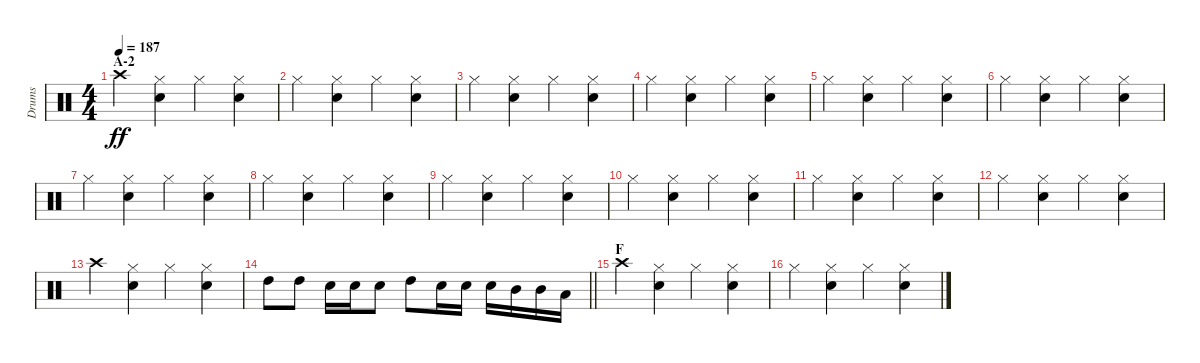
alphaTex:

\track ("Drums" "Drums") {instrument percussion}
\staff {score}
\articulation defaults
\ts (4 4)
\section ("" "A-2")
\tempo 187
\clef neutral
\ks c "Crash high (hit)".4{dy ff}
("Hi-Hat (closed)" "Snare (hit) 2").4 "Hi-Hat (closed)".4 ("Hi-Hat (closed)" "Snare (hit) 2").4 |
"Hi-Hat (closed)".4 ("Hi-Hat (closed)" "Snare (hit) 2").4 "Hi-Hat (closed)".4 ("Hi-Hat (closed)" "Snare (hit) 2").4 |
"Hi-Hat (closed)".4 ("Hi-Hat (closed)" "Snare (hit) 2").4 "Hi-Hat (closed)".4 ("Hi-Hat (closed)" "Snare (hit) 2").4 |
"Hi-Hat (closed)".4 ("Hi-Hat (closed)" "Snare (hit) 2").4 "Hi-Hat (closed)".4 ("Hi-Hat (closed)" "Snare (hit) 2").4 |
"Hi-Hat (closed)".4 ("Hi-Hat (closed)" "Snare (hit) 2").4 "Hi-Hat (closed)".4 ("Hi-Hat (closed)" "Snare (hit) 2").4 |
"Hi-Hat (closed)".4 ("Hi-Hat (closed)" "Snare (hit) 2").4 "Hi-Hat (closed)".4 ("Hi-Hat (closed)" "Snare (hit) 2").4 |
"Hi-Hat (closed)".4 ("Hi-Hat (closed)" "Snare (hit) 2").4 "Hi-Hat (closed)".4 ("Hi-Hat (closed)" "Snare (hit) 2").4 |
"Hi-Hat (closed)".4 ("Hi-Hat (closed)" "Snare (hit) 2").4 "Hi-Hat (closed)".4 ("Hi-Hat (closed)" "Snare (hit) 2").4 |
"Hi-Hat (closed)".4 ("Hi-Hat (closed)" "Snare (hit) 2").4 "Hi-Hat (closed)".4 ("Hi-Hat (closed)" "Snare (hit) 2").4 |
"Hi-Hat (closed)".4 ("Hi-Hat (closed)" "Snare (hit) 2").4 "Hi-Hat (closed)".4 ("Hi-Hat (closed)" "Snare (hit) 2").4 |
"Hi-Hat (closed)".4 ("Hi-Hat (closed)" "Snare (hit) 2").4 "Hi-Hat (closed)".4 ("Hi-Hat (closed)" "Snare (hit) 2").4 |
"Hi-Hat (closed)".4 ("Hi-Hat (closed)" "Snare (hit) 2").4 "Hi-Hat (closed)".4 ("Hi-Hat (closed)" "Snare (hit) 2").4 |
"Crash high (hit)".4 ("Hi-Hat (closed)" "Snare (hit) 2").4 "Hi-Hat (closed)".4 ("Hi-Hat (closed)" "Snare (hit) 2").4 |
\barLineRight lightlight "High Tom (hit)".8 "High Tom (hit)".8 "Snare (hit) 2".16 "Snare (hit) 2".16 "Snare (hit) 2".8 "High Tom (hit)".8 "Snare (hit) 2".16 "Snare (hit) 2".16 "Snare (hit) 2".16 "Mid Tom (hit)".16 "Mid Tom (hit)".16 "Low Tom (hit)".16
|
\section ("" "F")
"Crash high (hit)".4 ("Hi-Hat (closed)" "Snare (hit) 2").4 "Hi-Hat (closed)".4 ("Hi-Hat (closed)" "Snare (hit) 2").4 |
"Hi-Hat (closed)".4 ("Hi-Hat (closed)" "Snare (hit) 2").4 "Hi-Hat (closed)".4 ("Hi-Hat (closed)" "Snare (hit) 2").4
